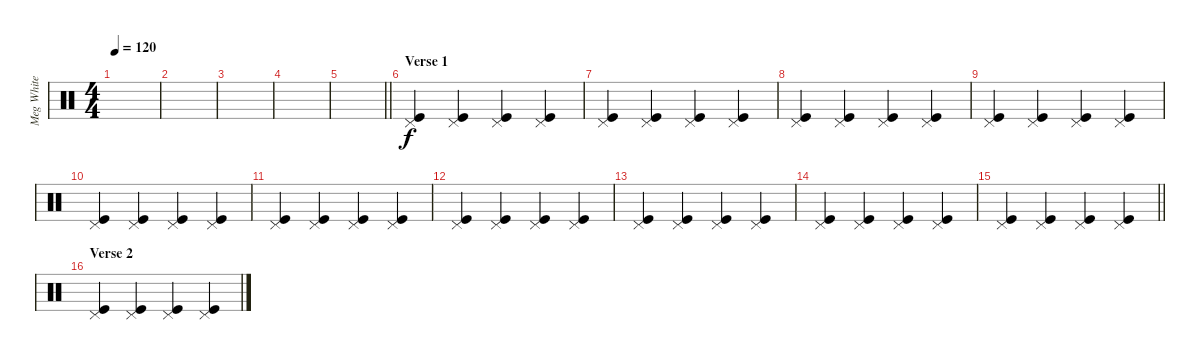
\track ("Meg White (Drums)" "Meg White ") {instrument percussion}
\staff {score}
\articulation defaults
\ts (4 4)
\tempo 120
\clef neutral
\ks c
|
|
|
|
\barLineRight lightlight
|
\section ("" "Verse 1")
("Kick (hit)" "Pedal Hi-Hat (hit)").4 ("Kick (hit)" "Pedal Hi-Hat (hit)").4 ("Kick (hit)" "Pedal Hi-Hat (hit)").4 ("Kick (hit)" "Pedal Hi-Hat (hit)").4 |
("Kick (hit)" "Pedal Hi-Hat (hit)").4 ("Kick (hit)" "Pedal Hi-Hat (hit)").4 ("Kick (hit)" "Pedal Hi-Hat (hit)").4 ("Kick (hit)" "Pedal Hi-Hat (hit)").4 |
("Kick (hit)" "Pedal Hi-Hat (hit)").4 ("Kick (hit)" "Pedal Hi-Hat (hit)").4 ("Kick (hit)" "Pedal Hi-Hat (hit)").4 ("Kick (hit)" "Pedal Hi-Hat (hit)").4 |
("Kick (hit)" "Pedal Hi-Hat (hit)").4 ("Kick (hit)" "Pedal Hi-Hat (hit)").4 ("Kick (hit)" "Pedal Hi-Hat (hit)").4 ("Kick (hit)" "Pedal Hi-Hat (hit)").4 |
("Kick (hit)" "Pedal Hi-Hat (hit)").4 ("Kick (hit)" "Pedal Hi-Hat (hit)").4 ("Kick (hit)" "Pedal Hi-Hat (hit)").4 ("Kick (hit)" "Pedal Hi-Hat (hit)").4 |
("Kick (hit)" "Pedal Hi-Hat (hit)").4 ("Kick (hit)" "Pedal Hi-Hat (hit)").4 ("Kick (hit)" "Pedal Hi-Hat (hit)").4 ("Kick (hit)" "Pedal Hi-Hat (hit)").4 |
("Kick (hit)" "Pedal Hi-Hat (hit)").4 ("Kick (hit)" "Pedal Hi-Hat (hit)").4 ("Kick (hit)" "Pedal Hi-Hat (hit)").4 ("Kick (hit)" "Pedal Hi-Hat (hit)").4 |
("Kick (hit)" "Pedal Hi-Hat (hit)").4 ("Kick (hit)" "Pedal Hi-Hat (hit)").4 ("Kick (hit)" "Pedal Hi-Hat (hit)").4 ("Kick (hit)" "Pedal Hi-Hat (hit)").4 |
("Kick (hit)" "Pedal Hi-Hat (hit)").4 ("Kick (hit)" "Pedal Hi-Hat (hit)").4 ("Kick (hit)" "Pedal Hi-Hat (hit)").4 ("Kick (hit)" "Pedal Hi-Hat (hit)").4 |
\barLineRight lightlight
("Kick (hit)" "Pedal Hi-Hat (hit)").4 ("Kick (hit)" "Pedal Hi-Hat (hit)").4 ("Kick (hit)" "Pedal Hi-Hat (hit)").4 ("Kick (hit)" "Pedal Hi-Hat (hit)").4 |
\section ("" "Verse 2")
("Kick (hit)" "Pedal Hi-Hat (hit)").4 ("Kick (hit)" "Pedal Hi-Hat (hit)").4 ("Kick (hit)" "Pedal Hi-Hat (hit)").4 ("Kick (hit)" "Pedal Hi-Hat (hit)").4
